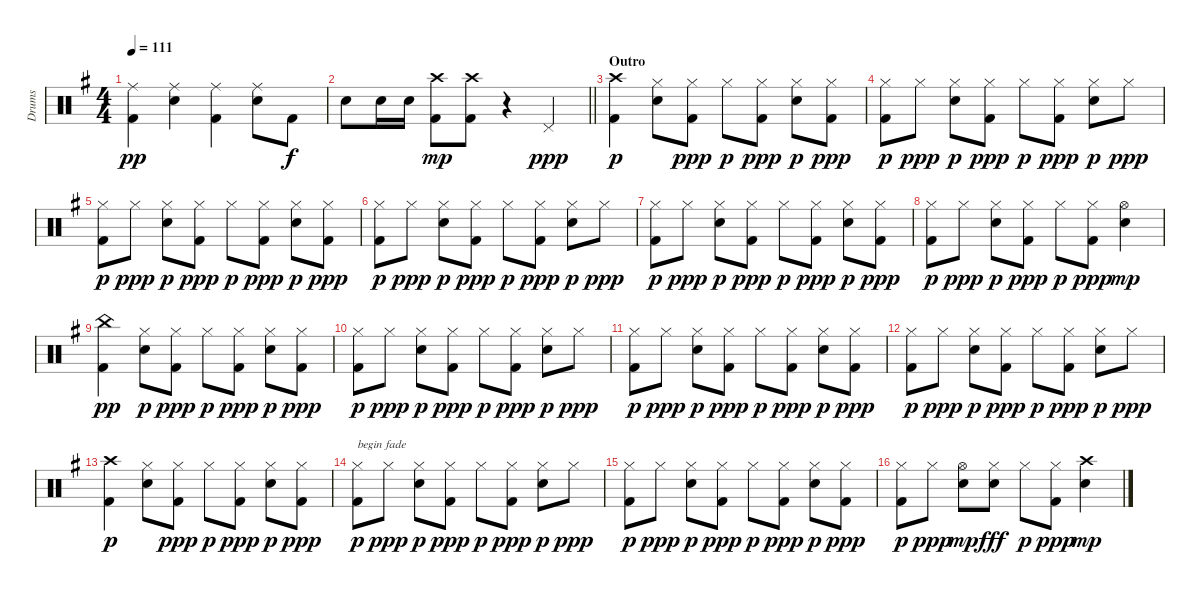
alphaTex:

\track ("Drums" "Drums") {instrument percussion}
\staff {score}
\articulation defaults
\ts (4 4)
\tempo 111
\clef neutral
\ks g
("Kick (hit) 2" "Ride (middle)").4{dy pp} ("Electric Snare (hit)" "Ride (middle)").4 ("Kick (hit) 2" "Ride (middle)").4 ("Electric Snare (hit)" "Ride (middle)").8 "Kick (hit) 2".8{dy f} |
\barLineRight lightlight "Electric Snare (hit)".8 "Electric Snare (hit)".16 "Electric Snare (hit)".16
("Kick (hit) 2" "Crash high (hit)").8{dy mp} ("Kick (hit) 2" "Crash high (hit)").8 r.4 "Pedal Hi-Hat (hit)".4{dy ppp} |
\section ("" "Outro")
("Crash high (hit)" "Kick (hit) 2").4{dy p} ("Hi-Hat (closed)" "Electric Snare (hit)").8 ("Kick (hit) 2" "Hi-Hat (closed)").8{dy ppp} "Hi-Hat (closed)".8{dy p} ("Kick (hit) 2" "Hi-Hat (closed)").8{dy ppp} ("Hi-Hat (closed)" "Electric Snare (hit)").8{dy p} ("Kick (hit) 2" "Hi-Hat (closed)").8{dy ppp} |
("Hi-Hat (closed)" "Kick (hit) 2").8{dy p} "Hi-Hat (closed)".8{dy ppp} ("Hi-Hat (closed)" "Electric Snare (hit)").8{dy p} ("Kick (hit) 2" "Hi-Hat (closed)").8{dy ppp} "Hi-Hat (closed)".8{dy p} ("Kick (hit) 2" "Hi-Hat (closed)").8{dy ppp} ("Hi-Hat (closed)" "Electric Snare (hit)").8{dy p} "Hi-Hat (closed)".8{dy ppp} |
("Hi-Hat (closed)" "Kick (hit) 2").8{dy p} "Hi-Hat (closed)".8{dy ppp} ("Hi-Hat (closed)" "Electric Snare (hit)").8{dy p} ("Kick (hit) 2" "Hi-Hat (closed)").8{dy ppp} "Hi-Hat (closed)".8{dy p} ("Kick (hit) 2" "Hi-Hat (closed)").8{dy ppp} ("Hi-Hat (closed)" "Electric Snare (hit)").8{dy p} ("Kick (hit) 2" "Hi-Hat (closed)").8{dy ppp} |
("Hi-Hat (closed)" "Kick (hit) 2").8{dy p} "Hi-Hat (closed)".8{dy ppp} ("Hi-Hat (closed)" "Electric Snare (hit)").8{dy p} ("Kick (hit) 2" "Hi-Hat (closed)").8{dy ppp} "Hi-Hat (closed)".8{dy p} ("Kick (hit) 2" "Hi-Hat (closed)").8{dy ppp} ("Hi-Hat (closed)" "Electric Snare (hit)").8{dy p} "Hi-Hat (closed)".8{dy ppp} |
("Hi-Hat (closed)" "Kick (hit) 2").8{dy p} "Hi-Hat (closed)".8{dy ppp} ("Hi-Hat (closed)" "Electric Snare (hit)").8{dy p} ("Kick (hit) 2" "Hi-Hat (closed)").8{dy ppp} "Hi-Hat (closed)".8{dy p} ("Kick (hit) 2" "Hi-Hat (closed)").8{dy ppp} ("Hi-Hat (closed)" "Electric Snare (hit)").8{dy p} ("Kick (hit) 2" "Hi-Hat (closed)").8{dy ppp} |
("Hi-Hat (closed)" "Kick (hit) 2").8{dy p} "Hi-Hat (closed)".8{dy ppp} ("Hi-Hat (closed)" "Electric Snare (hit)").8{dy p} ("Kick (hit) 2" "Hi-Hat (closed)").8{dy ppp} "Hi-Hat (closed)".8{dy p} ("Kick (hit) 2" "Hi-Hat (closed)").8{dy ppp} ("Hi-Hat (open)" "Electric Snare (hit)").4{dy mp} |
("China (hit)" "Kick (hit) 2").4{dy pp} ("Hi-Hat (closed)" "Electric Snare (hit)").8{dy p} ("Kick (hit) 2" "Hi-Hat (closed)").8{dy ppp} "Hi-Hat (closed)".8{dy p} ("Kick (hit) 2" "Hi-Hat (closed)").8{dy ppp} ("Hi-Hat (closed)" "Electric Snare (hit)").8{dy p} ("Kick (hit) 2" "Hi-Hat (closed)").8{dy ppp} |
("Hi-Hat (closed)" "Kick (hit) 2").8{dy p} "Hi-Hat (closed)".8{dy ppp} ("Hi-Hat (closed)" "Electric Snare (hit)").8{dy p} ("Kick (hit) 2" "Hi-Hat (closed)").8{dy ppp} "Hi-Hat (closed)".8{dy p} ("Kick (hit) 2" "Hi-Hat (closed)").8{dy ppp} ("Hi-Hat (closed)" "Electric Snare (hit)").8{dy p} "Hi-Hat (closed)".8{dy ppp} |
("Hi-Hat (closed)" "Kick (hit) 2").8{dy p} "Hi-Hat (closed)".8{dy ppp} ("Hi-Hat (closed)" "Electric Snare (hit)").8{dy p} ("Kick (hit) 2" "Hi-Hat (closed)").8{dy ppp} "Hi-Hat (closed)".8{dy p} ("Kick (hit) 2" "Hi-Hat (closed)").8{dy ppp} ("Hi-Hat (closed)" "Electric Snare (hit)").8{dy p} ("Kick (hit) 2" "Hi-Hat (closed)").8{dy ppp} |
("Hi-Hat (closed)" "Kick (hit) 2").8{dy p} "Hi-Hat (closed)".8{dy ppp} ("Hi-Hat (closed)" "Electric Snare (hit)").8{dy p} ("Kick (hit) 2" "Hi-Hat (closed)").8{dy ppp} "Hi-Hat (closed)".8{dy p} ("Kick (hit) 2" "Hi-Hat (closed)").8{dy ppp} ("Hi-Hat (closed)" "Electric Snare (hit)").8{dy p} "Hi-Hat (closed)".8{dy ppp} |
("Crash high (hit)" "Kick (hit) 2").4{dy p} ("Hi-Hat (closed)" "Electric Snare (hit)").8 ("Kick (hit) 2" "Hi-Hat (closed)").8{dy ppp} "Hi-Hat (closed)".8{dy p} ("Kick (hit) 2" "Hi-Hat (closed)").8{dy ppp} ("Hi-Hat (closed)" "Electric Snare (hit)").8{dy p} ("Kick (hit) 2" "Hi-Hat (closed)").8{dy ppp} |
("Hi-Hat (closed)" "Kick (hit) 2").8{txt "begin fade" dy p volume 11} "Hi-Hat (closed)".8{dy ppp} ("Hi-Hat (closed)" "Electric Snare (hit)").8{dy p} ("Kick (hit) 2" "Hi-Hat (closed)").8{dy ppp} "Hi-Hat (closed)".8{dy p} ("Kick (hit) 2" "Hi-Hat (closed)").8{dy ppp} ("Hi-Hat (closed)" "Electric Snare (hit)").8{dy p} "Hi-Hat (closed)".8{dy ppp} |
("Hi-Hat (closed)" "Kick (hit) 2").8{dy p} "Hi-Hat (closed)".8{dy ppp} ("Hi-Hat (closed)" "Electric Snare (hit)").8{dy p} ("Kick (hit) 2" "Hi-Hat (closed)").8{dy ppp} "Hi-Hat (closed)".8{dy p} ("Kick (hit) 2" "Hi-Hat (closed)").8{dy ppp} ("Hi-Hat (closed)" "Electric Snare (hit)").8{dy p} ("Kick (hit) 2" "Hi-Hat (closed)").8{dy ppp} |
("Hi-Hat (closed)" "Kick (hit) 2").8{dy p} "Hi-Hat (closed)".8{dy ppp} ("Hi-Hat (open)" "Electric Snare (hit)").8{dy mp} ("Hi-Hat (closed)" "Electric Snare (hit)").8{dy fff} "Hi-Hat (closed)".8{dy p} ("Kick (hit) 2" "Hi-Hat (closed)").8{dy ppp} ("Crash high (hit)" "Electric Snare (hit)").4{dy mp}
